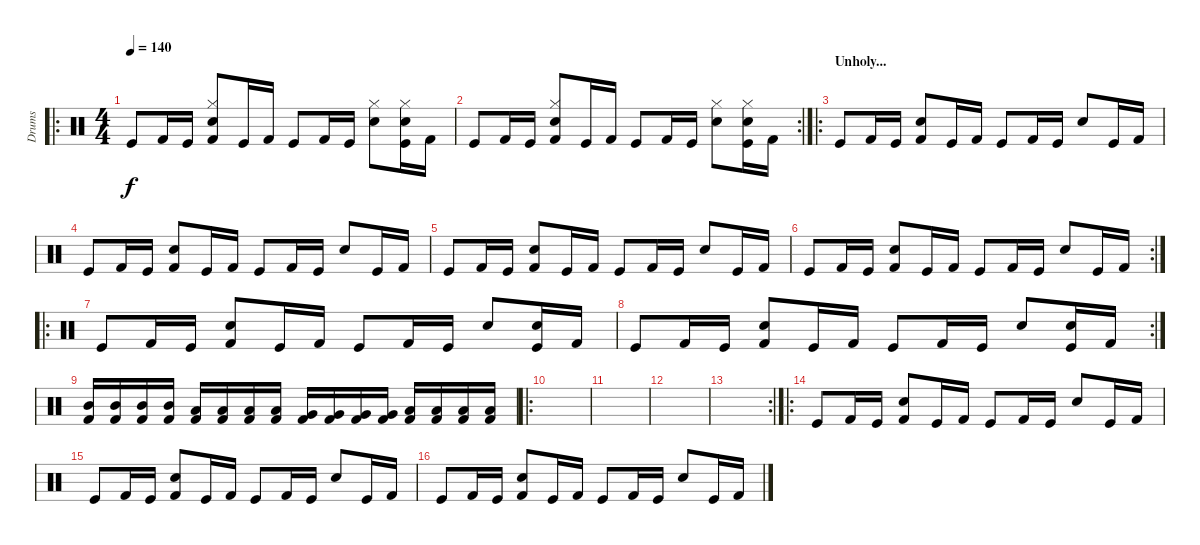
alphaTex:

\track ("Drums" "Drums") {instrument percussion}
\staff {score}
\articulation defaults
\ro
\ts (4 4)
\tempo 140
\clef neutral
\ks c "Kick (hit)".8{dy f} "Kick (hit) 2".16 "Kick (hit)".16
("Hi-Hat (closed)" "Snare (hit) 2" "Kick (hit) 2").8 "Kick (hit)".16 "Kick (hit) 2".16 "Kick (hit)".8 "Kick (hit) 2".16 "Kick (hit)".16 ("Hi-Hat (closed)" "Snare (hit) 2").8 ("Hi-Hat (closed)" "Snare (hit) 2" "Kick (hit)").16 "Kick (hit) 2".16 |
\rc 2 "Kick (hit)".8 "Kick (hit) 2".16 "Kick (hit)".16
("Hi-Hat (closed)" "Snare (hit) 2" "Kick (hit) 2").8 "Kick (hit)".16 "Kick (hit) 2".16 "Kick (hit)".8 "Kick (hit) 2".16 "Kick (hit)".16 ("Hi-Hat (closed)" "Snare (hit) 2").8 ("Hi-Hat (closed)" "Snare (hit) 2" "Kick (hit)").16 "Kick (hit) 2".16 |
\ro
\section ("" "Unholy...")
"Kick (hit)".8 "Kick (hit) 2".16 "Kick (hit)".16 ("Snare (hit) 2" "Kick (hit) 2").8 "Kick (hit)".16 "Kick (hit) 2".16 "Kick (hit)".8 "Kick (hit) 2".16 "Kick (hit)".16 "Snare (hit) 2".8 "Kick (hit)".16 "Kick (hit) 2".16 |
"Kick (hit)".8 "Kick (hit) 2".16 "Kick (hit)".16 ("Snare (hit) 2" "Kick (hit) 2").8 "Kick (hit)".16 "Kick (hit) 2".16 "Kick (hit)".8 "Kick (hit) 2".16 "Kick (hit)".16 "Snare (hit) 2".8 "Kick (hit)".16 "Kick (hit) 2".16 |
"Kick (hit)".8 "Kick (hit) 2".16 "Kick (hit)".16 ("Snare (hit) 2" "Kick (hit) 2").8 "Kick (hit)".16 "Kick (hit) 2".16 "Kick (hit)".8 "Kick (hit) 2".16 "Kick (hit)".16 "Snare (hit) 2".8 "Kick (hit)".16 "Kick (hit) 2".16 |
\rc 2 "Kick (hit)".8 "Kick (hit) 2".16 "Kick (hit)".16
("Snare (hit) 2" "Kick (hit) 2").8 "Kick (hit)".16 "Kick (hit) 2".16 "Kick (hit)".8 "Kick (hit) 2".16 "Kick (hit)".16 "Snare (hit) 2".8 "Kick (hit)".16 "Kick (hit) 2".16 |
\ro "Kick (hit)".8 "Kick (hit) 2".16 "Kick (hit)".16
("Snare (hit) 2" "Kick (hit) 2").8 "Kick (hit)".16 "Kick (hit) 2".16 "Kick (hit)".8 "Kick (hit) 2".16 "Kick (hit)".16 "Snare (hit) 2".8 ("Snare (hit) 2" "Kick (hit)").16 "Kick (hit) 2".16 |
\rc 2 "Kick (hit)".8 "Kick (hit) 2".16 "Kick (hit)".16
("Snare (hit) 2" "Kick (hit) 2").8 "Kick (hit)".16 "Kick (hit) 2".16 "Kick (hit)".8 "Kick (hit) 2".16 "Kick (hit)".16 "Snare (hit) 2".8 ("Snare (hit) 2" "Kick (hit)").16 "Kick (hit) 2".16 |
("Mid Tom (hit)" "Kick (hit) 2").16 ("Mid Tom (hit)" "Kick (hit) 2").16 ("Mid Tom (hit)" "Kick (hit) 2").16 ("Mid Tom (hit)" "Kick (hit) 2").16 ("Low Tom (hit)" "Kick (hit) 2").16 ("Low Tom (hit)" "Kick (hit) 2").16 ("Low Tom (hit)" "Kick (hit) 2").16 ("Low Tom (hit)" "Kick (hit) 2").16 ("Very Low Tom (hit)" "Kick (hit) 2").16 ("Very Low Tom (hit)" "Kick (hit) 2").16 ("Very Low Tom (hit)" "Kick (hit) 2").16 ("Very Low Tom (hit)" "Kick (hit) 2").16 ("Low Floor Tom (hit)" "Kick (hit) 2").16 ("Low Floor Tom (hit)" "Kick (hit) 2").16 ("Low Floor Tom (hit)" "Kick (hit) 2").16 ("Low Floor Tom (hit)" "Kick (hit) 2").16 |
\ro
|
|
|
\rc 2
|
\ro "Kick (hit)".8 "Kick (hit) 2".16 "Kick (hit)".16
("Snare (hit) 2" "Kick (hit) 2").8 "Kick (hit)".16 "Kick (hit) 2".16 "Kick (hit)".8 "Kick (hit) 2".16 "Kick (hit)".16 "Snare (hit) 2".8 "Kick (hit)".16 "Kick (hit) 2".16 |
"Kick (hit)".8 "Kick (hit) 2".16 "Kick (hit)".16 ("Snare (hit) 2" "Kick (hit) 2").8 "Kick (hit)".16 "Kick (hit) 2".16 "Kick (hit)".8 "Kick (hit) 2".16 "Kick (hit)".16 "Snare (hit) 2".8 "Kick (hit)".16 "Kick (hit) 2".16 |
"Kick (hit)".8 "Kick (hit) 2".16 "Kick (hit)".16 ("Snare (hit) 2" "Kick (hit) 2").8 "Kick (hit)".16 "Kick (hit) 2".16 "Kick (hit)".8 "Kick (hit) 2".16 "Kick (hit)".16 "Snare (hit) 2".8 "Kick (hit)".16 "Kick (hit) 2".16
